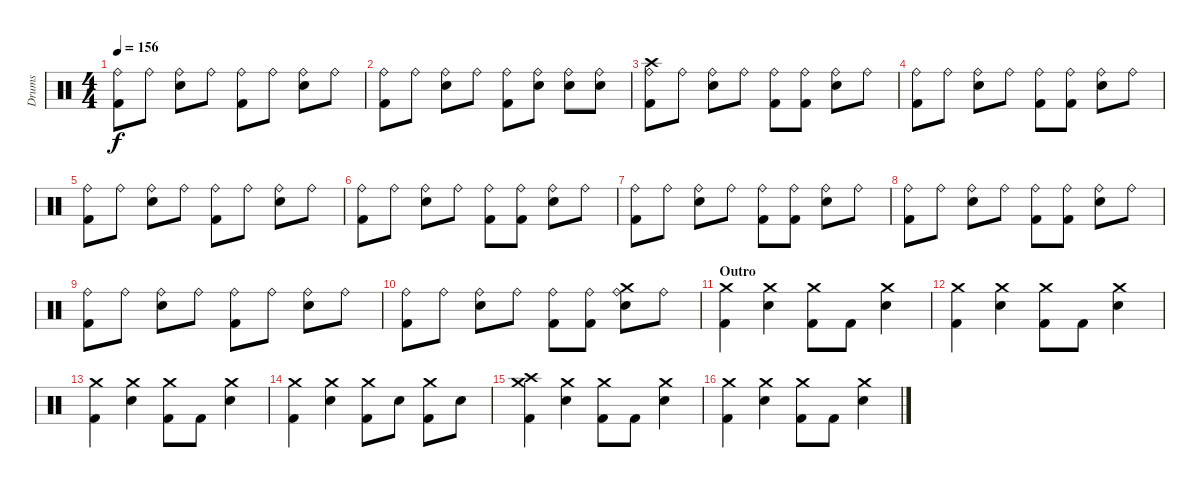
\track ("Drums" "Drums") {instrument percussion}
\staff {score}
\articulation defaults
\ts (4 4)
\tempo 156
\clef neutral
\ks c
("Ride (bell)" "Kick (hit) 2").8{dy f} "Ride (bell)".8 ("Ride (bell)" "Electric Snare (hit)").8 "Ride (bell)".8 ("Ride (bell)" "Kick (hit) 2").8 "Ride (bell)".8 ("Ride (bell)" "Electric Snare (hit)").8 "Ride (bell)".8 |
("Ride (bell)" "Kick (hit) 2").8 "Ride (bell)".8 ("Ride (bell)" "Electric Snare (hit)").8 "Ride (bell)".8 ("Ride (bell)" "Kick (hit) 2").8 ("Ride (bell)" "Electric Snare (hit)").8 ("Ride (bell)" "Electric Snare (hit)").8 ("Ride (bell)" "Electric Snare (hit)").8 |
("Ride (bell)" "Kick (hit) 2" "Crash high (hit)").8 "Ride (bell)".8 ("Ride (bell)" "Electric Snare (hit)").8 "Ride (bell)".8 ("Ride (bell)" "Kick (hit) 2").8 ("Ride (bell)" "Kick (hit) 2").8 ("Ride (bell)" "Electric Snare (hit)").8 "Ride (bell)".8 |
("Ride (bell)" "Kick (hit) 2").8 "Ride (bell)".8 ("Ride (bell)" "Electric Snare (hit)").8 "Ride (bell)".8 ("Ride (bell)" "Kick (hit) 2").8 ("Ride (bell)" "Kick (hit) 2").8 ("Ride (bell)" "Electric Snare (hit)").8 "Ride (bell)".8 |
("Ride (bell)" "Kick (hit) 2").8 "Ride (bell)".8 ("Ride (bell)" "Electric Snare (hit)").8 "Ride (bell)".8 ("Ride (bell)" "Kick (hit) 2").8 "Ride (bell)".8 ("Ride (bell)" "Electric Snare (hit)").8 "Ride (bell)".8 |
("Ride (bell)" "Kick (hit) 2").8 "Ride (bell)".8 ("Ride (bell)" "Electric Snare (hit)").8 "Ride (bell)".8 ("Ride (bell)" "Kick (hit) 2").8 ("Ride (bell)" "Kick (hit) 2").8 ("Ride (bell)" "Electric Snare (hit)").8 "Ride (bell)".8 |
("Ride (bell)" "Kick (hit) 2").8 "Ride (bell)".8 ("Ride (bell)" "Electric Snare (hit)").8 "Ride (bell)".8 ("Ride (bell)" "Kick (hit) 2").8 ("Ride (bell)" "Kick (hit) 2").8 ("Ride (bell)" "Electric Snare (hit)").8 "Ride (bell)".8 |
("Ride (bell)" "Kick (hit) 2").8 "Ride (bell)".8 ("Ride (bell)" "Electric Snare (hit)").8 "Ride (bell)".8 ("Ride (bell)" "Kick (hit) 2").8 ("Ride (bell)" "Kick (hit) 2").8 ("Ride (bell)" "Electric Snare (hit)").8 "Ride (bell)".8 |
("Ride (bell)" "Kick (hit) 2").8 "Ride (bell)".8 ("Ride (bell)" "Electric Snare (hit)").8 "Ride (bell)".8 ("Ride (bell)" "Kick (hit) 2").8 "Ride (bell)".8 ("Ride (bell)" "Electric Snare (hit)").8 "Ride (bell)".8 |
("Ride (bell)" "Kick (hit) 2").8 "Ride (bell)".8 ("Ride (bell)" "Electric Snare (hit)").8 "Ride (bell)".8 ("Ride (bell)" "Kick (hit) 2").8 ("Ride (bell)" "Kick (hit) 2").8 ("Ride (bell)" "Electric Snare (hit)" "Crash medium (hit)").8 "Ride (bell)".8 |
\section ("" "Outro")
("Crash medium (hit)" "Kick (hit) 2").4 ("Crash medium (hit)" "Electric Snare (hit)").4 ("Crash medium (hit)" "Kick (hit) 2").8 "Kick (hit) 2".8 ("Crash medium (hit)" "Electric Snare (hit)").4 |
("Crash medium (hit)" "Kick (hit) 2").4 ("Crash medium (hit)" "Electric Snare (hit)").4 ("Crash medium (hit)" "Kick (hit) 2").8 "Kick (hit) 2".8 ("Crash medium (hit)" "Electric Snare (hit)").4 |
("Crash medium (hit)" "Kick (hit) 2").4 ("Crash medium (hit)" "Electric Snare (hit)").4 ("Crash medium (hit)" "Kick (hit) 2").8 "Kick (hit) 2".8 ("Crash medium (hit)" "Electric Snare (hit)").4 |
("Crash medium (hit)" "Kick (hit) 2").4 ("Crash medium (hit)" "Electric Snare (hit)").4 ("Crash medium (hit)" "Kick (hit) 2").8 "Electric Snare (hit)".8 ("Crash medium (hit)" "Kick (hit) 2").8 "Electric Snare (hit)".8 |
("Crash medium (hit)" "Kick (hit) 2" "Crash high (hit)").4 ("Crash medium (hit)" "Electric Snare (hit)").4 ("Crash medium (hit)" "Kick (hit) 2").8 "Kick (hit) 2".8 ("Crash medium (hit)" "Electric Snare (hit)").4 |
("Crash medium (hit)" "Kick (hit) 2").4 ("Crash medium (hit)" "Electric Snare (hit)").4 ("Crash medium (hit)" "Kick (hit) 2").8 "Kick (hit) 2".8 ("Crash medium (hit)" "Electric Snare (hit)").4
